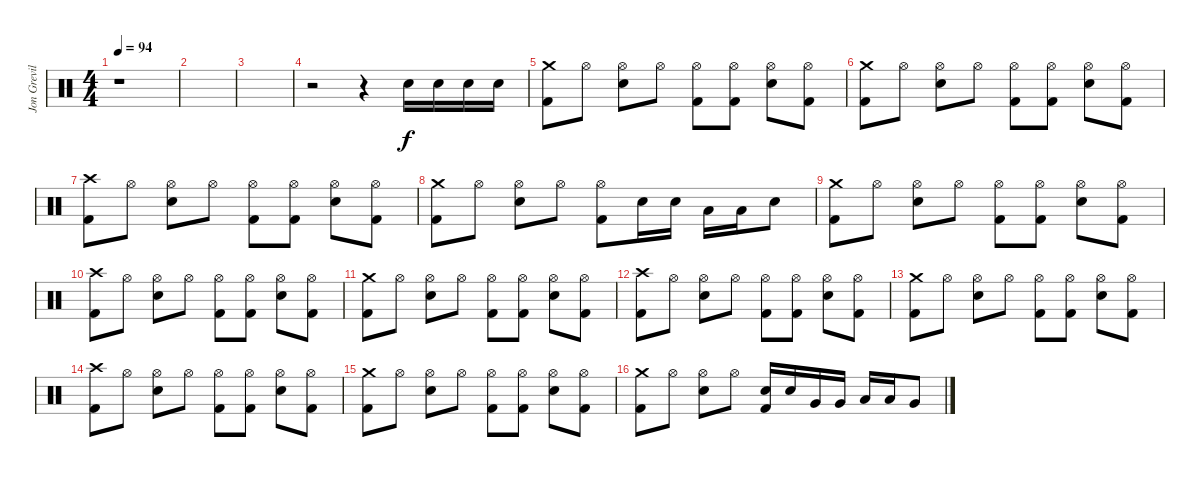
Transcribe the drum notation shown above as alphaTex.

\track ("Jon Greville (Drums)" "Jon Grevil") {instrument percussion}
\staff {score}
\articulation defaults
\ts (4 4)
\tempo 94
\clef neutral
\ks c
r.1{dy f} |
|
|
r.2 r.4 "Electric Snare (hit)".16 "Electric Snare (hit)".16 "Electric Snare (hit)".16 "Electric Snare (hit)".16 |
("Crash medium (hit)" "Kick (hit) 2").8 "Hi-Hat (open)".8 ("Hi-Hat (open)" "Electric Snare (hit)").8 "Hi-Hat (open)".8 ("Hi-Hat (open)" "Kick (hit) 2").8 ("Hi-Hat (open)" "Kick (hit) 2").8 ("Hi-Hat (open)" "Electric Snare (hit)").8 ("Hi-Hat (open)" "Kick (hit) 2").8 |
("Crash medium (hit)" "Kick (hit) 2").8 "Hi-Hat (open)".8 ("Hi-Hat (open)" "Electric Snare (hit)").8 "Hi-Hat (open)".8 ("Hi-Hat (open)" "Kick (hit) 2").8 ("Hi-Hat (open)" "Kick (hit) 2").8 ("Hi-Hat (open)" "Electric Snare (hit)").8 ("Hi-Hat (open)" "Kick (hit) 2").8 |
("Crash high (hit)" "Kick (hit) 2").8 "Hi-Hat (open)".8 ("Hi-Hat (open)" "Electric Snare (hit)").8 "Hi-Hat (open)".8 ("Hi-Hat (open)" "Kick (hit) 2").8 ("Hi-Hat (open)" "Kick (hit) 2").8 ("Hi-Hat (open)" "Electric Snare (hit)").8 ("Hi-Hat (open)" "Kick (hit) 2").8 |
("Crash medium (hit)" "Kick (hit) 2").8 "Hi-Hat (open)".8 ("Hi-Hat (open)" "Electric Snare (hit)").8 "Hi-Hat (open)".8 ("Hi-Hat (open)" "Kick (hit) 2").8 "Electric Snare (hit)".16 "Electric Snare (hit)".16 "Low Tom (hit)".16 "Low Tom (hit)".16 "Electric Snare (hit)".8 |
("Crash medium (hit)" "Kick (hit) 2").8 "Hi-Hat (open)".8 ("Hi-Hat (open)" "Electric Snare (hit)").8 "Hi-Hat (open)".8 ("Hi-Hat (open)" "Kick (hit) 2").8 ("Hi-Hat (open)" "Kick (hit) 2").8 ("Hi-Hat (open)" "Electric Snare (hit)").8 ("Hi-Hat (open)" "Kick (hit) 2").8 |
("Crash high (hit)" "Kick (hit) 2").8 "Hi-Hat (open)".8 ("Hi-Hat (open)" "Electric Snare (hit)").8 "Hi-Hat (open)".8 ("Hi-Hat (open)" "Kick (hit) 2").8 ("Hi-Hat (open)" "Kick (hit) 2").8 ("Hi-Hat (open)" "Electric Snare (hit)").8 ("Hi-Hat (open)" "Kick (hit) 2").8 |
("Crash medium (hit)" "Kick (hit) 2").8 "Hi-Hat (open)".8 ("Hi-Hat (open)" "Electric Snare (hit)").8 "Hi-Hat (open)".8 ("Hi-Hat (open)" "Kick (hit) 2").8 ("Hi-Hat (open)" "Kick (hit) 2").8 ("Hi-Hat (open)" "Electric Snare (hit)").8 ("Hi-Hat (open)" "Kick (hit) 2").8 |
("Crash high (hit)" "Kick (hit) 2").8 "Hi-Hat (open)".8 ("Hi-Hat (open)" "Electric Snare (hit)").8 "Hi-Hat (open)".8 ("Hi-Hat (open)" "Kick (hit) 2").8 ("Hi-Hat (open)" "Kick (hit) 2").8 ("Hi-Hat (open)" "Electric Snare (hit)").8 ("Hi-Hat (open)" "Kick (hit) 2").8 |
("Crash medium (hit)" "Kick (hit) 2").8 "Hi-Hat (open)".8 ("Hi-Hat (open)" "Electric Snare (hit)").8 "Hi-Hat (open)".8 ("Hi-Hat (open)" "Kick (hit) 2").8 ("Hi-Hat (open)" "Kick (hit) 2").8 ("Hi-Hat (open)" "Electric Snare (hit)").8 ("Hi-Hat (open)" "Kick (hit) 2").8 |
("Crash high (hit)" "Kick (hit) 2").8 "Hi-Hat (open)".8 ("Hi-Hat (open)" "Electric Snare (hit)").8 "Hi-Hat (open)".8 ("Hi-Hat (open)" "Kick (hit) 2").8 ("Hi-Hat (open)" "Kick (hit) 2").8 ("Hi-Hat (open)" "Electric Snare (hit)").8 ("Hi-Hat (open)" "Kick (hit) 2").8 |
("Crash medium (hit)" "Kick (hit) 2").8 "Hi-Hat (open)".8 ("Hi-Hat (open)" "Electric Snare (hit)").8 "Hi-Hat (open)".8 ("Hi-Hat (open)" "Kick (hit) 2").8 ("Hi-Hat (open)" "Kick (hit) 2").8 ("Hi-Hat (open)" "Electric Snare (hit)").8 ("Hi-Hat (open)" "Kick (hit) 2").8 |
("Crash medium (hit)" "Kick (hit) 2").8 "Hi-Hat (open)".8 ("Hi-Hat (open)" "Electric Snare (hit)").8 "Hi-Hat (open)".8 ("Electric Snare (hit)" "Kick (hit) 2").16 "Electric Snare (hit)".16 "Very Low Tom (hit)".16 "Very Low Tom (hit)".16 "Low Tom (hit)".16 "Low Tom (hit)".16 "Very Low Tom (hit)".8
